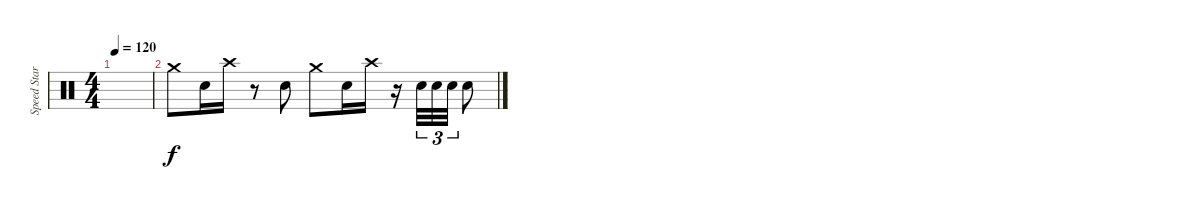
\track ("Speed Star triolet" "Speed Star") {instrument percussion}
\staff {score}
\articulation defaults
\ts (4 4)
\tempo 120
\clef neutral
\ks c
|
"Crash medium (hit)".8 "Snare (hit) 2".16 "Crash high (hit)".16 r.8 "Snare (hit) 2".8 "Crash medium (hit)".8 "Snare (hit) 2".16 "Crash high (hit)".16 r.16 "Snare (hit) 2".32{tu (3 2)} "Snare (hit) 2".32{tu (3 2)} "Snare (hit) 2".32{tu (3 2)} "Snare (hit) 2".8
